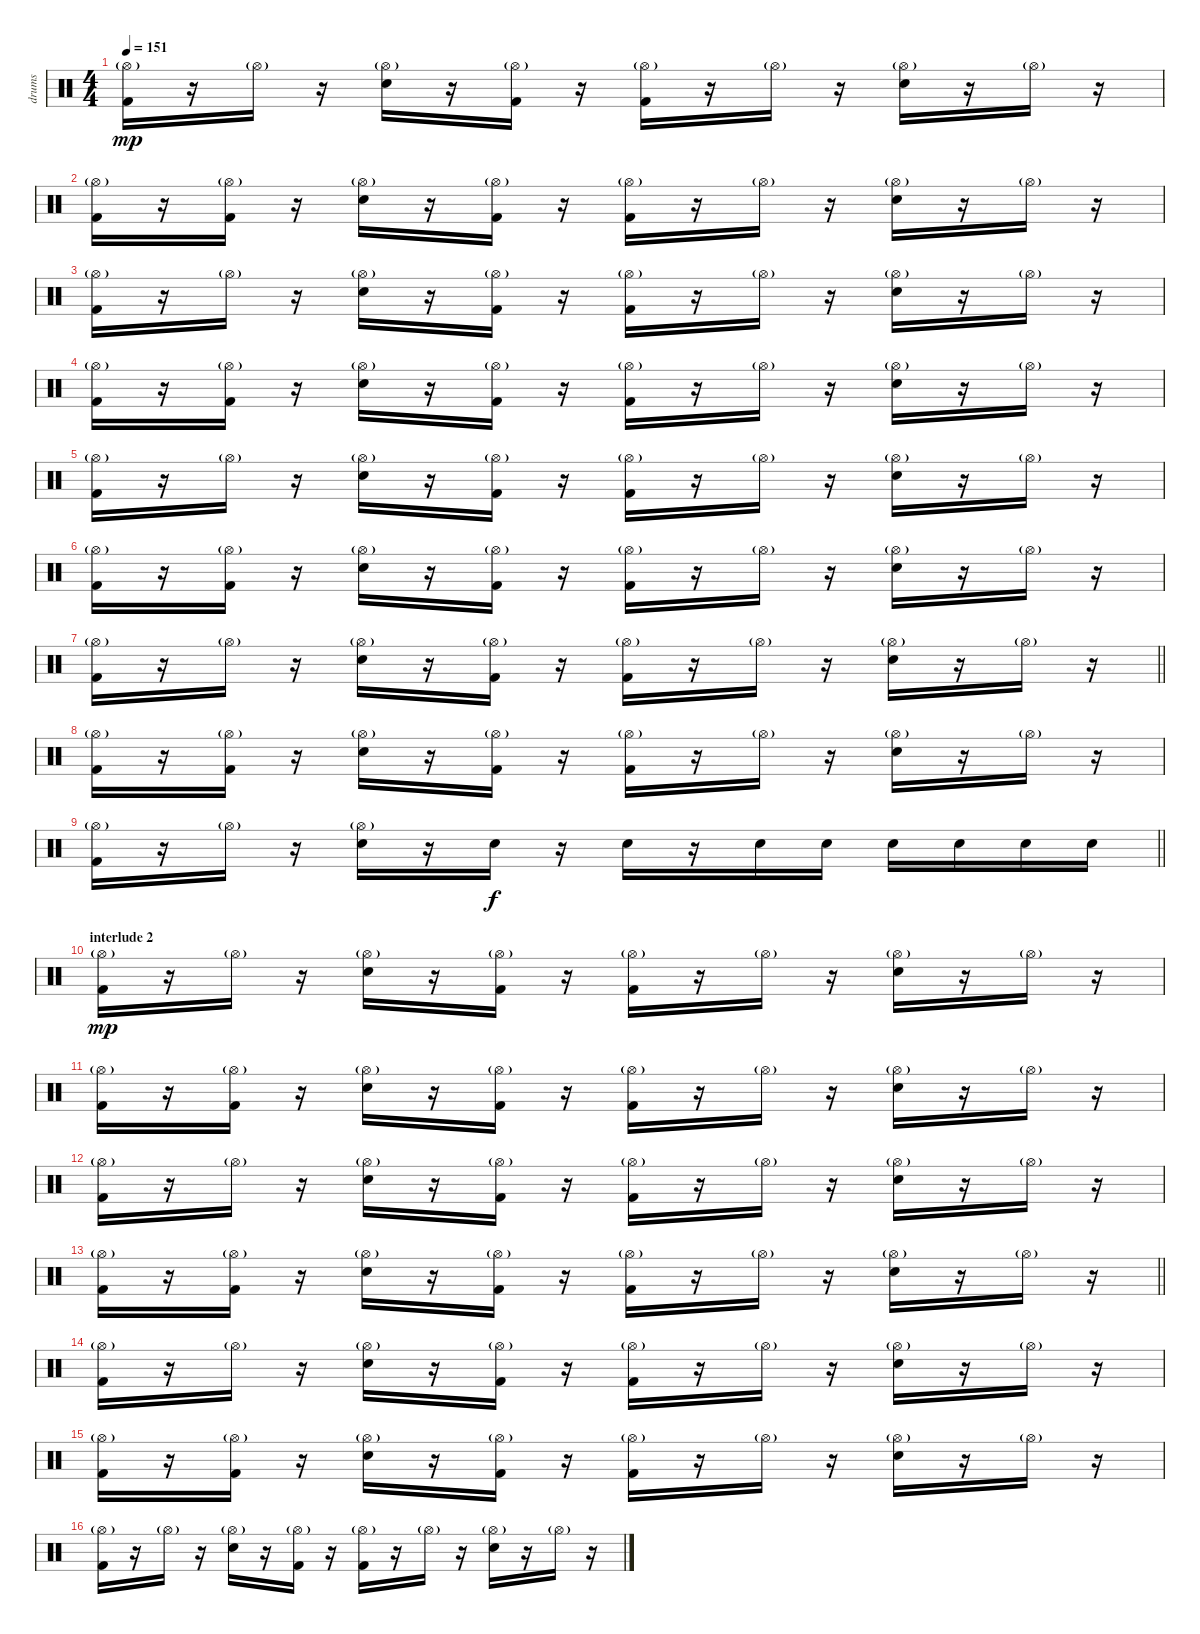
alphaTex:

\track ("drums" "drums") {instrument percussion}
\staff {score}
\articulation defaults
\ts (4 4)
\tempo 151
\clef neutral
\ks c
("Kick (hit) 2" "Hi-Hat (open)"{g}).16{dy mp} r.16 "Hi-Hat (open)"{g}.16 r.16 ("Electric Snare (hit)" "Hi-Hat (open)"{g}).16 r.16 ("Kick (hit) 2" "Hi-Hat (open)"{g}).16 r.16 ("Kick (hit) 2" "Hi-Hat (open)"{g}).16 r.16 "Hi-Hat (open)"{g}.16 r.16 ("Electric Snare (hit)" "Hi-Hat (open)"{g}).16 r.16 "Hi-Hat (open)"{g}.16 r.16 |
("Kick (hit) 2" "Hi-Hat (open)"{g}).16 r.16 ("Kick (hit) 2" "Hi-Hat (open)"{g}).16 r.16 ("Electric Snare (hit)" "Hi-Hat (open)"{g}).16 r.16 ("Kick (hit) 2" "Hi-Hat (open)"{g}).16 r.16 ("Kick (hit) 2" "Hi-Hat (open)"{g}).16 r.16 "Hi-Hat (open)"{g}.16 r.16 ("Electric Snare (hit)" "Hi-Hat (open)"{g}).16 r.16 "Hi-Hat (open)"{g}.16 r.16 |
("Kick (hit) 2" "Hi-Hat (open)"{g}).16 r.16 "Hi-Hat (open)"{g}.16 r.16 ("Electric Snare (hit)" "Hi-Hat (open)"{g}).16 r.16 ("Kick (hit) 2" "Hi-Hat (open)"{g}).16 r.16 ("Kick (hit) 2" "Hi-Hat (open)"{g}).16 r.16 "Hi-Hat (open)"{g}.16 r.16 ("Electric Snare (hit)" "Hi-Hat (open)"{g}).16 r.16 "Hi-Hat (open)"{g}.16 r.16 |
("Kick (hit) 2" "Hi-Hat (open)"{g}).16 r.16 ("Kick (hit) 2" "Hi-Hat (open)"{g}).16 r.16 ("Electric Snare (hit)" "Hi-Hat (open)"{g}).16 r.16 ("Kick (hit) 2" "Hi-Hat (open)"{g}).16 r.16 ("Kick (hit) 2" "Hi-Hat (open)"{g}).16 r.16 "Hi-Hat (open)"{g}.16 r.16 ("Electric Snare (hit)" "Hi-Hat (open)"{g}).16 r.16 "Hi-Hat (open)"{g}.16 r.16 |
("Kick (hit) 2" "Hi-Hat (open)"{g}).16 r.16 "Hi-Hat (open)"{g}.16 r.16 ("Electric Snare (hit)" "Hi-Hat (open)"{g}).16 r.16 ("Kick (hit) 2" "Hi-Hat (open)"{g}).16 r.16 ("Kick (hit) 2" "Hi-Hat (open)"{g}).16 r.16 "Hi-Hat (open)"{g}.16 r.16 ("Electric Snare (hit)" "Hi-Hat (open)"{g}).16 r.16 "Hi-Hat (open)"{g}.16 r.16 |
("Kick (hit) 2" "Hi-Hat (open)"{g}).16 r.16 ("Kick (hit) 2" "Hi-Hat (open)"{g}).16 r.16 ("Electric Snare (hit)" "Hi-Hat (open)"{g}).16 r.16 ("Kick (hit) 2" "Hi-Hat (open)"{g}).16 r.16 ("Kick (hit) 2" "Hi-Hat (open)"{g}).16 r.16 "Hi-Hat (open)"{g}.16 r.16 ("Electric Snare (hit)" "Hi-Hat (open)"{g}).16 r.16 "Hi-Hat (open)"{g}.16 r.16 |
\barLineRight lightlight
("Kick (hit) 2" "Hi-Hat (open)"{g}).16 r.16 "Hi-Hat (open)"{g}.16 r.16 ("Electric Snare (hit)" "Hi-Hat (open)"{g}).16 r.16 ("Kick (hit) 2" "Hi-Hat (open)"{g}).16 r.16 ("Kick (hit) 2" "Hi-Hat (open)"{g}).16 r.16 "Hi-Hat (open)"{g}.16 r.16 ("Electric Snare (hit)" "Hi-Hat (open)"{g}).16 r.16 "Hi-Hat (open)"{g}.16 r.16 |
("Kick (hit) 2" "Hi-Hat (open)"{g}).16 r.16 ("Kick (hit) 2" "Hi-Hat (open)"{g}).16 r.16 ("Electric Snare (hit)" "Hi-Hat (open)"{g}).16 r.16 ("Kick (hit) 2" "Hi-Hat (open)"{g}).16 r.16 ("Kick (hit) 2" "Hi-Hat (open)"{g}).16 r.16 "Hi-Hat (open)"{g}.16 r.16 ("Electric Snare (hit)" "Hi-Hat (open)"{g}).16 r.16 "Hi-Hat (open)"{g}.16 r.16 |
\barLineRight lightlight
("Kick (hit) 2" "Hi-Hat (open)"{g}).16 r.16 "Hi-Hat (open)"{g}.16 r.16 ("Electric Snare (hit)" "Hi-Hat (open)"{g}).16 r.16 "Electric Snare (hit)".16{dy f} r.16 "Electric Snare (hit)".16 r.16 "Electric Snare (hit)".16 "Electric Snare (hit)".16 "Electric Snare (hit)".16 "Electric Snare (hit)".16 "Electric Snare (hit)".16 "Electric Snare (hit)".16 |
\section ("" "interlude 2")
("Kick (hit) 2" "Hi-Hat (open)"{g}).16{dy mp} r.16 "Hi-Hat (open)"{g}.16 r.16 ("Electric Snare (hit)" "Hi-Hat (open)"{g}).16 r.16 ("Kick (hit) 2" "Hi-Hat (open)"{g}).16 r.16 ("Kick (hit) 2" "Hi-Hat (open)"{g}).16 r.16 "Hi-Hat (open)"{g}.16 r.16 ("Electric Snare (hit)" "Hi-Hat (open)"{g}).16 r.16 "Hi-Hat (open)"{g}.16 r.16 |
("Kick (hit) 2" "Hi-Hat (open)"{g}).16 r.16 ("Kick (hit) 2" "Hi-Hat (open)"{g}).16 r.16 ("Electric Snare (hit)" "Hi-Hat (open)"{g}).16 r.16 ("Kick (hit) 2" "Hi-Hat (open)"{g}).16 r.16 ("Kick (hit) 2" "Hi-Hat (open)"{g}).16 r.16 "Hi-Hat (open)"{g}.16 r.16 ("Electric Snare (hit)" "Hi-Hat (open)"{g}).16 r.16 "Hi-Hat (open)"{g}.16 r.16 |
("Kick (hit) 2" "Hi-Hat (open)"{g}).16 r.16 "Hi-Hat (open)"{g}.16 r.16 ("Electric Snare (hit)" "Hi-Hat (open)"{g}).16 r.16 ("Kick (hit) 2" "Hi-Hat (open)"{g}).16 r.16 ("Kick (hit) 2" "Hi-Hat (open)"{g}).16 r.16 "Hi-Hat (open)"{g}.16 r.16 ("Electric Snare (hit)" "Hi-Hat (open)"{g}).16 r.16 "Hi-Hat (open)"{g}.16 r.16 |
\barLineRight lightlight
("Kick (hit) 2" "Hi-Hat (open)"{g}).16 r.16 ("Kick (hit) 2" "Hi-Hat (open)"{g}).16 r.16 ("Electric Snare (hit)" "Hi-Hat (open)"{g}).16 r.16 ("Kick (hit) 2" "Hi-Hat (open)"{g}).16 r.16 ("Kick (hit) 2" "Hi-Hat (open)"{g}).16 r.16 "Hi-Hat (open)"{g}.16 r.16 ("Electric Snare (hit)" "Hi-Hat (open)"{g}).16 r.16 "Hi-Hat (open)"{g}.16 r.16 |
("Kick (hit) 2" "Hi-Hat (open)"{g}).16 r.16 "Hi-Hat (open)"{g}.16 r.16 ("Electric Snare (hit)" "Hi-Hat (open)"{g}).16 r.16 ("Kick (hit) 2" "Hi-Hat (open)"{g}).16 r.16 ("Kick (hit) 2" "Hi-Hat (open)"{g}).16 r.16 "Hi-Hat (open)"{g}.16 r.16 ("Electric Snare (hit)" "Hi-Hat (open)"{g}).16 r.16 "Hi-Hat (open)"{g}.16 r.16 |
("Kick (hit) 2" "Hi-Hat (open)"{g}).16 r.16 ("Kick (hit) 2" "Hi-Hat (open)"{g}).16 r.16 ("Electric Snare (hit)" "Hi-Hat (open)"{g}).16 r.16 ("Kick (hit) 2" "Hi-Hat (open)"{g}).16 r.16 ("Kick (hit) 2" "Hi-Hat (open)"{g}).16 r.16 "Hi-Hat (open)"{g}.16 r.16 ("Electric Snare (hit)" "Hi-Hat (open)"{g}).16 r.16 "Hi-Hat (open)"{g}.16 r.16 |
("Kick (hit) 2" "Hi-Hat (open)"{g}).16 r.16 "Hi-Hat (open)"{g}.16 r.16 ("Electric Snare (hit)" "Hi-Hat (open)"{g}).16 r.16 ("Kick (hit) 2" "Hi-Hat (open)"{g}).16 r.16 ("Kick (hit) 2" "Hi-Hat (open)"{g}).16 r.16 "Hi-Hat (open)"{g}.16 r.16 ("Electric Snare (hit)" "Hi-Hat (open)"{g}).16 r.16 "Hi-Hat (open)"{g}.16 r.16
